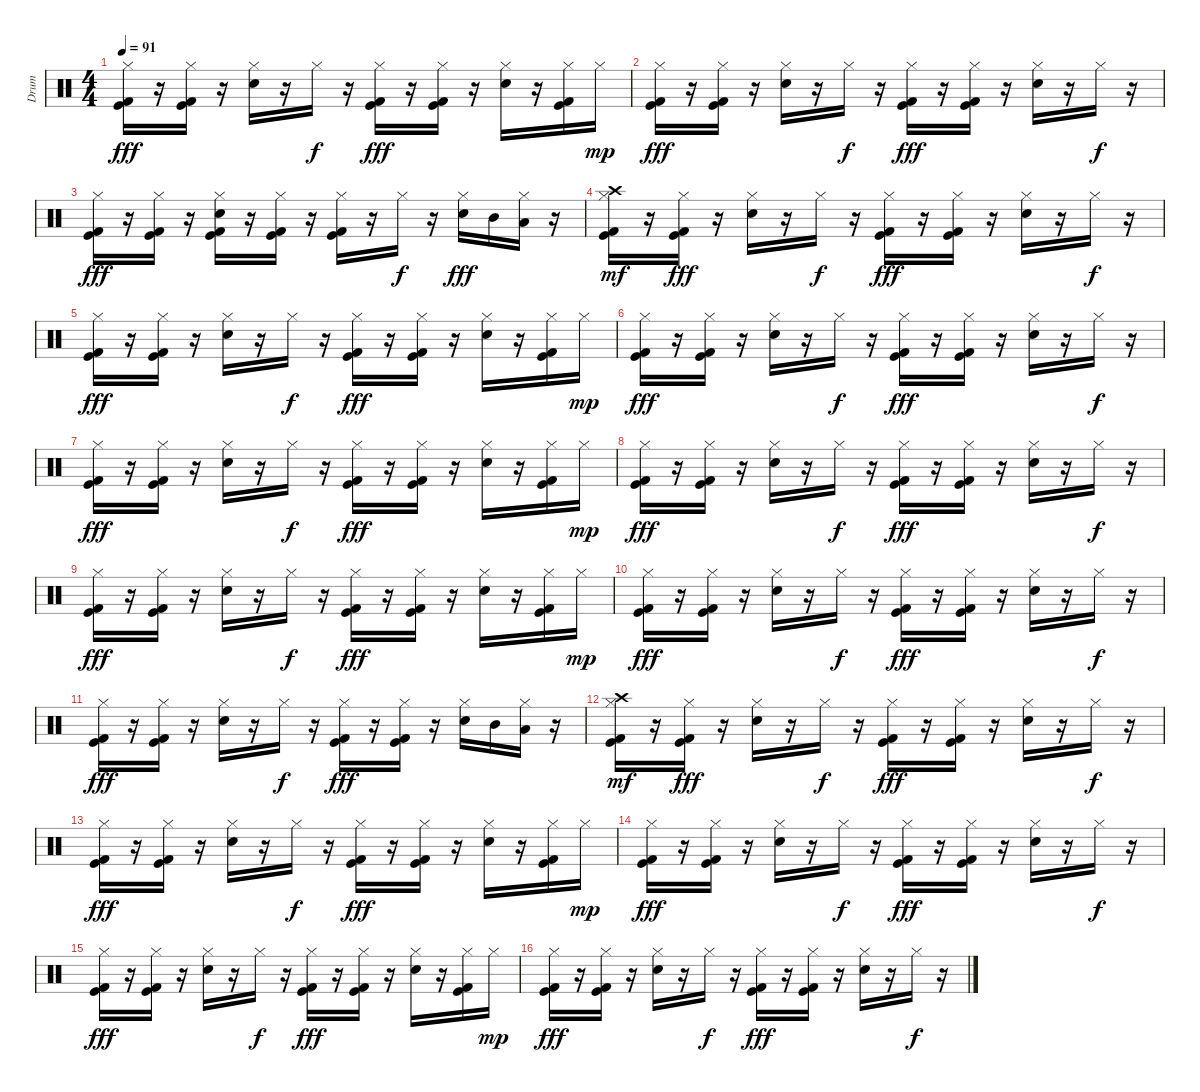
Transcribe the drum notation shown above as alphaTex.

\track ("Drum" "Drum") {instrument percussion}
\staff {score}
\articulation defaults
\ts (4 4)
\tempo 91
\clef neutral
\ks c
("Kick (hit)" "Kick (hit) 2" "Hi-Hat (closed)").16{dy fff} r.16 ("Kick (hit)" "Kick (hit) 2" "Hi-Hat (closed)").16 r.16 ("Hi-Hat (closed)" "Electric Snare (hit)").16 r.16 "Hi-Hat (closed)".16{dy f} r.16 ("Hi-Hat (closed)" "Kick (hit)" "Kick (hit) 2").16{dy fff} r.16 ("Kick (hit)" "Kick (hit) 2" "Hi-Hat (closed)").16 r.16 ("Hi-Hat (closed)" "Electric Snare (hit)").16 r.16 ("Hi-Hat (closed)" "Kick (hit)" "Kick (hit) 2").16 "Hi-Hat (closed)".16{dy mp} |
("Kick (hit)" "Kick (hit) 2" "Hi-Hat (closed)").16{dy fff} r.16 ("Kick (hit)" "Kick (hit) 2" "Hi-Hat (closed)").16 r.16 ("Hi-Hat (closed)" "Electric Snare (hit)").16 r.16 "Hi-Hat (closed)".16{dy f} r.16 ("Hi-Hat (closed)" "Kick (hit) 2" "Kick (hit)").16{dy fff} r.16 ("Kick (hit)" "Kick (hit) 2" "Hi-Hat (closed)").16 r.16 ("Hi-Hat (closed)" "Electric Snare (hit)").16 r.16 "Hi-Hat (closed)".16{dy f} r.16 |
("Kick (hit)" "Kick (hit) 2" "Hi-Hat (closed)").16{dy fff} r.16 ("Kick (hit)" "Kick (hit) 2" "Hi-Hat (closed)").16 r.16 ("Hi-Hat (closed)" "Electric Snare (hit)" "Kick (hit)" "Kick (hit) 2").16 r.16 ("Hi-Hat (closed)" "Kick (hit)" "Kick (hit) 2").16 r.16 ("Hi-Hat (closed)" "Kick (hit)" "Kick (hit) 2").16 r.16 "Hi-Hat (closed)".16{dy f} r.16 ("Hi-Hat (closed)" "Electric Snare (hit)").16{dy fff} "Mid Tom (hit)".16 ("Hi-Hat (closed)" "Low Tom (hit)").16 r.16 |
("Kick (hit)" "Kick (hit) 2" "Hi-Hat (closed)" "Crash high (hit)").16{dy mf} r.16 ("Kick (hit)" "Kick (hit) 2" "Hi-Hat (closed)").16{dy fff} r.16 ("Hi-Hat (closed)" "Electric Snare (hit)").16 r.16 "Hi-Hat (closed)".16{dy f} r.16 ("Hi-Hat (closed)" "Kick (hit) 2" "Kick (hit)").16{dy fff} r.16 ("Kick (hit)" "Kick (hit) 2" "Hi-Hat (closed)").16 r.16 ("Hi-Hat (closed)" "Electric Snare (hit)").16 r.16 "Hi-Hat (closed)".16{dy f} r.16 |
("Kick (hit)" "Kick (hit) 2" "Hi-Hat (closed)").16{dy fff} r.16 ("Kick (hit)" "Kick (hit) 2" "Hi-Hat (closed)").16 r.16 ("Hi-Hat (closed)" "Electric Snare (hit)").16 r.16 "Hi-Hat (closed)".16{dy f} r.16 ("Hi-Hat (closed)" "Kick (hit)" "Kick (hit) 2").16{dy fff} r.16 ("Kick (hit)" "Kick (hit) 2" "Hi-Hat (closed)").16 r.16 ("Hi-Hat (closed)" "Electric Snare (hit)").16 r.16 ("Hi-Hat (closed)" "Kick (hit)" "Kick (hit) 2").16 "Hi-Hat (closed)".16{dy mp} |
("Kick (hit)" "Kick (hit) 2" "Hi-Hat (closed)").16{dy fff} r.16 ("Kick (hit)" "Kick (hit) 2" "Hi-Hat (closed)").16 r.16 ("Hi-Hat (closed)" "Electric Snare (hit)").16 r.16 "Hi-Hat (closed)".16{dy f} r.16 ("Hi-Hat (closed)" "Kick (hit) 2" "Kick (hit)").16{dy fff} r.16 ("Kick (hit)" "Kick (hit) 2" "Hi-Hat (closed)").16 r.16 ("Hi-Hat (closed)" "Electric Snare (hit)").16 r.16 "Hi-Hat (closed)".16{dy f} r.16 |
("Kick (hit)" "Kick (hit) 2" "Hi-Hat (closed)").16{dy fff} r.16 ("Kick (hit)" "Kick (hit) 2" "Hi-Hat (closed)").16 r.16 ("Hi-Hat (closed)" "Electric Snare (hit)").16 r.16 "Hi-Hat (closed)".16{dy f} r.16 ("Hi-Hat (closed)" "Kick (hit)" "Kick (hit) 2").16{dy fff} r.16 ("Kick (hit)" "Kick (hit) 2" "Hi-Hat (closed)").16 r.16 ("Hi-Hat (closed)" "Electric Snare (hit)").16 r.16 ("Hi-Hat (closed)" "Kick (hit)" "Kick (hit) 2").16 "Hi-Hat (closed)".16{dy mp} |
("Kick (hit)" "Kick (hit) 2" "Hi-Hat (closed)").16{dy fff} r.16 ("Kick (hit)" "Kick (hit) 2" "Hi-Hat (closed)").16 r.16 ("Hi-Hat (closed)" "Electric Snare (hit)").16 r.16 "Hi-Hat (closed)".16{dy f} r.16 ("Hi-Hat (closed)" "Kick (hit) 2" "Kick (hit)").16{dy fff} r.16 ("Kick (hit)" "Kick (hit) 2" "Hi-Hat (closed)").16 r.16 ("Hi-Hat (closed)" "Electric Snare (hit)").16 r.16 "Hi-Hat (closed)".16{dy f} r.16 |
("Kick (hit)" "Kick (hit) 2" "Hi-Hat (closed)").16{dy fff} r.16 ("Kick (hit)" "Kick (hit) 2" "Hi-Hat (closed)").16 r.16 ("Hi-Hat (closed)" "Electric Snare (hit)").16 r.16 "Hi-Hat (closed)".16{dy f} r.16 ("Hi-Hat (closed)" "Kick (hit)" "Kick (hit) 2").16{dy fff} r.16 ("Kick (hit)" "Kick (hit) 2" "Hi-Hat (closed)").16 r.16 ("Hi-Hat (closed)" "Electric Snare (hit)").16 r.16 ("Hi-Hat (closed)" "Kick (hit)" "Kick (hit) 2").16 "Hi-Hat (closed)".16{dy mp} |
("Kick (hit)" "Kick (hit) 2" "Hi-Hat (closed)").16{dy fff} r.16 ("Kick (hit)" "Kick (hit) 2" "Hi-Hat (closed)").16 r.16 ("Hi-Hat (closed)" "Electric Snare (hit)").16 r.16 "Hi-Hat (closed)".16{dy f} r.16 ("Hi-Hat (closed)" "Kick (hit) 2" "Kick (hit)").16{dy fff} r.16 ("Kick (hit)" "Kick (hit) 2" "Hi-Hat (closed)").16 r.16 ("Hi-Hat (closed)" "Electric Snare (hit)").16 r.16 "Hi-Hat (closed)".16{dy f} r.16 |
("Kick (hit)" "Kick (hit) 2" "Hi-Hat (closed)").16{dy fff} r.16 ("Kick (hit)" "Kick (hit) 2" "Hi-Hat (closed)").16 r.16 ("Hi-Hat (closed)" "Electric Snare (hit)").16 r.16 "Hi-Hat (closed)".16{dy f} r.16 ("Hi-Hat (closed)" "Kick (hit)" "Kick (hit) 2").16{dy fff} r.16 ("Kick (hit)" "Kick (hit) 2" "Hi-Hat (closed)").16 r.16 ("Hi-Hat (closed)" "Electric Snare (hit)").16 "Mid Tom (hit)".16 ("Hi-Hat (closed)" "Low Tom (hit)").16 r.16 |
("Kick (hit)" "Kick (hit) 2" "Crash high (hit)" "Hi-Hat (closed)").16{dy mf} r.16 ("Kick (hit)" "Kick (hit) 2" "Hi-Hat (closed)").16{dy fff} r.16 ("Hi-Hat (closed)" "Electric Snare (hit)").16 r.16 "Hi-Hat (closed)".16{dy f} r.16 ("Kick (hit)" "Kick (hit) 2" "Hi-Hat (closed)").16{dy fff} r.16 ("Kick (hit)" "Kick (hit) 2" "Hi-Hat (closed)").16 r.16 ("Hi-Hat (closed)" "Electric Snare (hit)").16 r.16 "Hi-Hat (closed)".16{dy f} r.16 |
("Kick (hit)" "Kick (hit) 2" "Hi-Hat (closed)").16{dy fff} r.16 ("Kick (hit)" "Kick (hit) 2" "Hi-Hat (closed)").16 r.16 ("Hi-Hat (closed)" "Electric Snare (hit)").16 r.16 "Hi-Hat (closed)".16{dy f} r.16 ("Kick (hit)" "Kick (hit) 2" "Hi-Hat (closed)").16{dy fff} r.16 ("Kick (hit)" "Kick (hit) 2" "Hi-Hat (closed)").16 r.16 ("Hi-Hat (closed)" "Electric Snare (hit)").16 r.16 ("Kick (hit)" "Kick (hit) 2" "Hi-Hat (closed)").16 "Hi-Hat (closed)".16{dy mp} |
("Kick (hit)" "Kick (hit) 2" "Hi-Hat (closed)").16{dy fff} r.16 ("Kick (hit)" "Kick (hit) 2" "Hi-Hat (closed)").16 r.16 ("Hi-Hat (closed)" "Electric Snare (hit)").16 r.16 "Hi-Hat (closed)".16{dy f} r.16 ("Kick (hit)" "Kick (hit) 2" "Hi-Hat (closed)").16{dy fff} r.16 ("Kick (hit)" "Kick (hit) 2" "Hi-Hat (closed)").16 r.16 ("Hi-Hat (closed)" "Electric Snare (hit)").16 r.16 "Hi-Hat (closed)".16{dy f} r.16 |
("Kick (hit)" "Kick (hit) 2" "Hi-Hat (closed)").16{dy fff} r.16 ("Kick (hit)" "Kick (hit) 2" "Hi-Hat (closed)").16 r.16 ("Hi-Hat (closed)" "Electric Snare (hit)").16 r.16 "Hi-Hat (closed)".16{dy f} r.16 ("Kick (hit)" "Kick (hit) 2" "Hi-Hat (closed)").16{dy fff} r.16 ("Kick (hit)" "Kick (hit) 2" "Hi-Hat (closed)").16 r.16 ("Hi-Hat (closed)" "Electric Snare (hit)").16 r.16 ("Kick (hit)" "Kick (hit) 2" "Hi-Hat (closed)").16 "Hi-Hat (closed)".16{dy mp} |
("Kick (hit)" "Kick (hit) 2" "Hi-Hat (closed)").16{dy fff} r.16 ("Kick (hit)" "Kick (hit) 2" "Hi-Hat (closed)").16 r.16 ("Hi-Hat (closed)" "Electric Snare (hit)").16 r.16 "Hi-Hat (closed)".16{dy f} r.16 ("Kick (hit)" "Kick (hit) 2" "Hi-Hat (closed)").16{dy fff} r.16 ("Kick (hit)" "Kick (hit) 2" "Hi-Hat (closed)").16 r.16 ("Hi-Hat (closed)" "Electric Snare (hit)").16 r.16 "Hi-Hat (closed)".16{dy f} r.16
